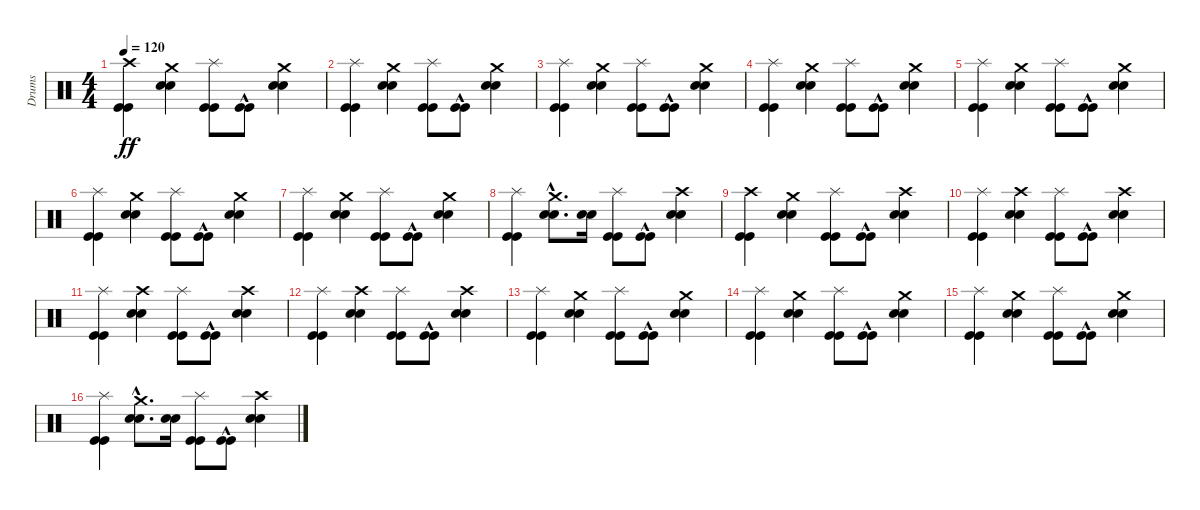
\track ("Drums" "Drums") {instrument percussion}
\staff {score}
\articulation defaults
\ts (4 4)
\tempo 120
\clef neutral
\ks c
("Kick (hit)" "Kick (hit)" "Crash high (hit)").4{dy ff} ("Snare (hit) 2" "Snare (hit) 2" "Crash medium (hit)").4 ("Kick (hit)" "Kick (hit)" "Splash (hit)").8 ("Kick (hit)"{hac} "Kick (hit)"{hac}).8 ("Snare (hit) 2" "Snare (hit) 2" "Crash medium (hit)").4 |
("Kick (hit)" "Kick (hit)" "Splash (hit)").4 ("Snare (hit) 2" "Snare (hit) 2" "Crash medium (hit)").4 ("Kick (hit)" "Kick (hit)" "Splash (hit)").8 ("Kick (hit)"{hac} "Kick (hit)"{hac}).8 ("Snare (hit) 2" "Snare (hit) 2" "Crash medium (hit)").4 |
("Kick (hit)" "Kick (hit)" "Splash (hit)").4 ("Snare (hit) 2" "Snare (hit) 2" "Crash medium (hit)").4 ("Kick (hit)" "Kick (hit)" "Splash (hit)").8 ("Kick (hit)"{hac} "Kick (hit)"{hac}).8 ("Snare (hit) 2" "Snare (hit) 2" "Crash medium (hit)").4 |
("Kick (hit)" "Kick (hit)" "Splash (hit)").4 ("Snare (hit) 2" "Snare (hit) 2" "Crash medium (hit)").4 ("Kick (hit)" "Kick (hit)" "Splash (hit)").8 ("Kick (hit)"{hac} "Kick (hit)"{hac}).8 ("Snare (hit) 2" "Snare (hit) 2" "Crash medium (hit)").4 |
("Kick (hit)" "Kick (hit)" "Splash (hit)").4 ("Snare (hit) 2" "Snare (hit) 2" "Crash medium (hit)").4 ("Kick (hit)" "Kick (hit)" "Splash (hit)").8 ("Kick (hit)"{hac} "Kick (hit)"{hac}).8 ("Snare (hit) 2" "Snare (hit) 2" "Crash medium (hit)").4 |
("Kick (hit)" "Kick (hit)" "Splash (hit)").4 ("Snare (hit) 2" "Snare (hit) 2" "Crash medium (hit)").4 ("Kick (hit)" "Kick (hit)" "Splash (hit)").8 ("Kick (hit)"{hac} "Kick (hit)"{hac}).8 ("Snare (hit) 2" "Snare (hit) 2" "Crash medium (hit)").4 |
("Kick (hit)" "Kick (hit)" "Splash (hit)").4 ("Snare (hit) 2" "Snare (hit) 2" "Crash medium (hit)").4 ("Kick (hit)" "Kick (hit)" "Splash (hit)").8 ("Kick (hit)"{hac} "Kick (hit)"{hac}).8 ("Snare (hit) 2" "Snare (hit) 2" "Crash medium (hit)").4 |
("Kick (hit)" "Kick (hit)" "Splash (hit)").4 ("Snare (hit) 2"{hac} "Snare (hit) 2"{hac} "Crash medium (hit)").8{d} ("Snare (hit) 2" "Snare (hit) 2").16 ("Kick (hit)" "Kick (hit)" "Splash (hit)").8 ("Kick (hit)"{hac} "Kick (hit)"{hac}).8 ("Snare (hit) 2" "Snare (hit) 2" "Crash high (hit)").4 |
("Kick (hit)" "Kick (hit)" "Crash high (hit)").4 ("Snare (hit) 2" "Snare (hit) 2" "Crash medium (hit)").4 ("Kick (hit)" "Kick (hit)" "Splash (hit)").8 ("Kick (hit)"{hac} "Kick (hit)"{hac}).8 ("Snare (hit) 2" "Snare (hit) 2" "Crash high (hit)").4 |
("Kick (hit)" "Kick (hit)" "Splash (hit)").4 ("Snare (hit) 2" "Snare (hit) 2" "Crash high (hit)").4 ("Kick (hit)" "Kick (hit)" "Splash (hit)").8 ("Kick (hit)"{hac} "Kick (hit)"{hac}).8 ("Snare (hit) 2" "Snare (hit) 2" "Crash high (hit)").4 |
("Kick (hit)" "Kick (hit)" "Splash (hit)").4 ("Snare (hit) 2" "Snare (hit) 2" "Crash high (hit)").4 ("Kick (hit)" "Kick (hit)" "Splash (hit)").8 ("Kick (hit)"{hac} "Kick (hit)"{hac}).8 ("Snare (hit) 2" "Snare (hit) 2" "Crash high (hit)").4 |
("Kick (hit)" "Kick (hit)" "Splash (hit)").4 ("Snare (hit) 2" "Snare (hit) 2" "Crash high (hit)").4 ("Kick (hit)" "Kick (hit)" "Splash (hit)").8 ("Kick (hit)"{hac} "Kick (hit)"{hac}).8 ("Snare (hit) 2" "Snare (hit) 2" "Crash high (hit)").4 |
("Kick (hit)" "Kick (hit)" "Splash (hit)").4 ("Snare (hit) 2" "Snare (hit) 2" "Crash medium (hit)").4 ("Kick (hit)" "Kick (hit)" "Splash (hit)").8 ("Kick (hit)"{hac} "Kick (hit)"{hac}).8 ("Snare (hit) 2" "Snare (hit) 2" "Crash medium (hit)").4 |
("Kick (hit)" "Kick (hit)" "Splash (hit)").4 ("Snare (hit) 2" "Snare (hit) 2" "Crash medium (hit)").4 ("Kick (hit)" "Kick (hit)" "Splash (hit)").8 ("Kick (hit)"{hac} "Kick (hit)"{hac}).8 ("Snare (hit) 2" "Snare (hit) 2" "Crash medium (hit)").4 |
("Kick (hit)" "Kick (hit)" "Splash (hit)").4 ("Snare (hit) 2" "Snare (hit) 2" "Crash medium (hit)").4 ("Kick (hit)" "Kick (hit)" "Splash (hit)").8 ("Kick (hit)"{hac} "Kick (hit)"{hac}).8 ("Snare (hit) 2" "Snare (hit) 2" "Crash medium (hit)").4 |
("Kick (hit)" "Kick (hit)" "Splash (hit)").4 ("Snare (hit) 2"{hac} "Snare (hit) 2"{hac} "Crash medium (hit)").8{d} ("Snare (hit) 2" "Snare (hit) 2").16 ("Kick (hit)" "Kick (hit)" "Splash (hit)").8 ("Kick (hit)"{hac} "Kick (hit)"{hac}).8 ("Snare (hit) 2" "Snare (hit) 2" "Crash high (hit)").4
